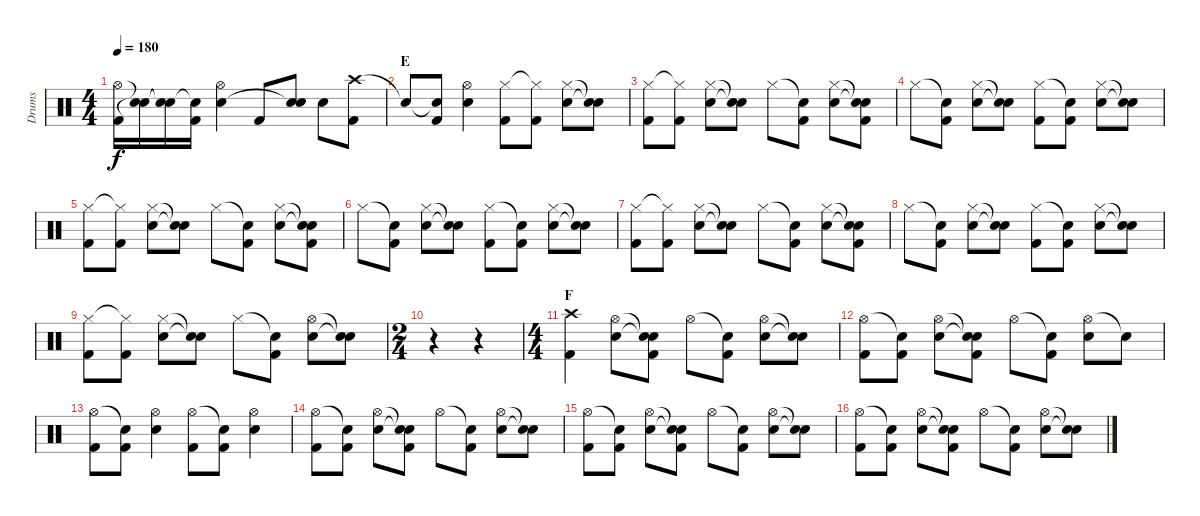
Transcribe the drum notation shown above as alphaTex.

\track ("Drums" "Drums") {instrument percussion}
\staff {score}
\articulation defaults
\ts (4 4)
\tempo 180
\clef neutral
\ks c
("Hi-Hat (open)" "Kick (hit) 2").16{dy f} ("Snare (hit)"{t} "Snare (hit)"{t}).16 ("Snare (hit)"{t} "Snare (hit)"{t}).16 ("Snare (hit)"{t} "Kick (hit) 2").16 ("Hi-Hat (open)" "Snare (hit) 2").4 "Kick (hit) 2".8 ("Snare (hit) 2" "Snare (hit)"{t}).8 "Snare (hit) 2".8 ("Crash high (hit)" "Kick (hit) 2").8 |
\section ("" "E")
"Snare (hit)"{t}.8 ("Snare (hit)"{t} "Kick (hit) 2").8 ("Hi-Hat (open)" "Snare (hit) 2").4 ("Hi-Hat (closed)" "Kick (hit) 2").8 ("Hi-Hat (closed)"{t} "Kick (hit) 2").8 ("Hi-Hat (closed)" "Snare (hit) 2").8 ("Snare (hit)"{t} "Snare (hit)"{t}).8 |
("Hi-Hat (closed)" "Kick (hit) 2").8 ("Hi-Hat (closed)"{t} "Kick (hit) 2").8 ("Hi-Hat (closed)" "Snare (hit) 2").8 ("Snare (hit)"{t} "Snare (hit)"{t}).8 "Hi-Hat (closed)".8 ("Snare (hit)"{t} "Kick (hit) 2").8 ("Hi-Hat (closed)" "Snare (hit) 2").8 ("Snare (hit)"{t} "Snare (hit)"{t} "Kick (hit) 2").8 |
"Hi-Hat (closed)".8 ("Snare (hit)"{t} "Kick (hit) 2").8 ("Hi-Hat (closed)" "Snare (hit) 2").8 ("Snare (hit)"{t} "Snare (hit)"{t}).8 ("Hi-Hat (closed)" "Kick (hit) 2").8 ("Snare (hit)"{t} "Kick (hit) 2").8 ("Hi-Hat (closed)" "Snare (hit) 2").8 ("Snare (hit)"{t} "Snare (hit)"{t}).8 |
("Hi-Hat (closed)" "Kick (hit) 2").8 ("Hi-Hat (closed)"{t} "Kick (hit) 2").8 ("Hi-Hat (closed)" "Snare (hit) 2").8 ("Snare (hit)"{t} "Snare (hit)"{t}).8 "Hi-Hat (closed)".8 ("Snare (hit)"{t} "Kick (hit) 2").8 ("Hi-Hat (closed)" "Snare (hit) 2").8 ("Snare (hit)"{t} "Snare (hit)"{t} "Kick (hit) 2").8 |
"Hi-Hat (closed)".8 ("Snare (hit)"{t} "Kick (hit) 2").8 ("Hi-Hat (closed)" "Snare (hit) 2").8 ("Snare (hit)"{t} "Snare (hit)"{t}).8 ("Hi-Hat (closed)" "Kick (hit) 2").8 ("Snare (hit)"{t} "Kick (hit) 2").8 ("Hi-Hat (closed)" "Snare (hit) 2").8 ("Snare (hit)"{t} "Snare (hit)"{t}).8 |
("Hi-Hat (closed)" "Kick (hit) 2").8 ("Hi-Hat (closed)"{t} "Kick (hit) 2").8 ("Hi-Hat (closed)" "Snare (hit) 2").8 ("Snare (hit)"{t} "Snare (hit)"{t}).8 "Hi-Hat (closed)".8 ("Snare (hit)"{t} "Kick (hit) 2").8 ("Hi-Hat (closed)" "Snare (hit) 2").8 ("Snare (hit)"{t} "Snare (hit)"{t} "Kick (hit) 2").8 |
"Hi-Hat (closed)".8 ("Snare (hit)"{t} "Kick (hit) 2").8 ("Hi-Hat (closed)" "Snare (hit) 2").8 ("Snare (hit)"{t} "Snare (hit)"{t}).8 ("Hi-Hat (closed)" "Kick (hit) 2").8 ("Snare (hit)"{t} "Kick (hit) 2").8 ("Hi-Hat (closed)" "Snare (hit) 2").8 ("Snare (hit)"{t} "Snare (hit)"{t}).8 |
("Hi-Hat (closed)" "Kick (hit) 2").8 ("Hi-Hat (closed)"{t} "Kick (hit) 2").8 ("Hi-Hat (closed)" "Snare (hit) 2").8 ("Snare (hit)"{t} "Snare (hit)"{t}).8 "Hi-Hat (closed)".8 ("Snare (hit)"{t} "Kick (hit) 2").8 ("Hi-Hat (open)" "Snare (hit) 2").8 ("Snare (hit)"{t} "Snare (hit)"{t}).8 |
\ts (2 4)
r.4 r.4 |
\ts (4 4)
\section ("" "F")
("Crash high (hit)" "Kick (hit) 2").4 ("Hi-Hat (open)" "Snare (hit) 2").8 ("Snare (hit)"{t} "Snare (hit)"{t} "Kick (hit) 2").8 "Hi-Hat (open)".8 ("Snare (hit)"{t} "Kick (hit) 2").8 ("Hi-Hat (open)" "Snare (hit) 2").8 ("Snare (hit)"{t} "Snare (hit)"{t}).8 |
("Hi-Hat (open)" "Kick (hit) 2").8 ("Snare (hit)"{t} "Kick (hit) 2").8 ("Hi-Hat (open)" "Snare (hit) 2").8 ("Snare (hit)"{t} "Snare (hit)"{t} "Kick (hit) 2").8 "Hi-Hat (open)".8 ("Snare (hit)"{t} "Kick (hit) 2").8 ("Hi-Hat (open)" "Snare (hit) 2").8 "Snare (hit)"{t}.8 |
("Hi-Hat (open)" "Kick (hit) 2").8 ("Snare (hit)"{t} "Kick (hit) 2").8 ("Hi-Hat (open)" "Snare (hit) 2").4 ("Hi-Hat (open)" "Kick (hit) 2").8 ("Snare (hit)"{t} "Kick (hit) 2").8 ("Hi-Hat (open)" "Snare (hit) 2").4 |
("Hi-Hat (open)" "Kick (hit) 2").8 ("Snare (hit)"{t} "Kick (hit) 2").8 ("Hi-Hat (open)" "Snare (hit) 2").8 ("Snare (hit)"{t} "Snare (hit)"{t} "Kick (hit) 2").8 "Hi-Hat (open)".8 ("Snare (hit)"{t} "Kick (hit) 2").8 ("Hi-Hat (open)" "Snare (hit) 2").8 ("Snare (hit)"{t} "Snare (hit)"{t}).8 |
("Hi-Hat (open)" "Kick (hit) 2").8 ("Snare (hit)"{t} "Kick (hit) 2").8 ("Hi-Hat (open)" "Snare (hit) 2").8 ("Snare (hit)"{t} "Snare (hit)"{t} "Kick (hit) 2").8 "Hi-Hat (open)".8 ("Snare (hit)"{t} "Kick (hit) 2").8 ("Hi-Hat (open)" "Snare (hit) 2").8 ("Snare (hit)"{t} "Snare (hit)"{t}).8 |
("Hi-Hat (open)" "Kick (hit) 2").8 ("Snare (hit)"{t} "Kick (hit) 2").8 ("Hi-Hat (open)" "Snare (hit) 2").8 ("Snare (hit)"{t} "Snare (hit)"{t} "Kick (hit) 2").8 "Hi-Hat (open)".8 ("Snare (hit)"{t} "Kick (hit) 2").8 ("Hi-Hat (open)" "Snare (hit) 2").8 ("Snare (hit)"{t} "Snare (hit)"{t}).8
